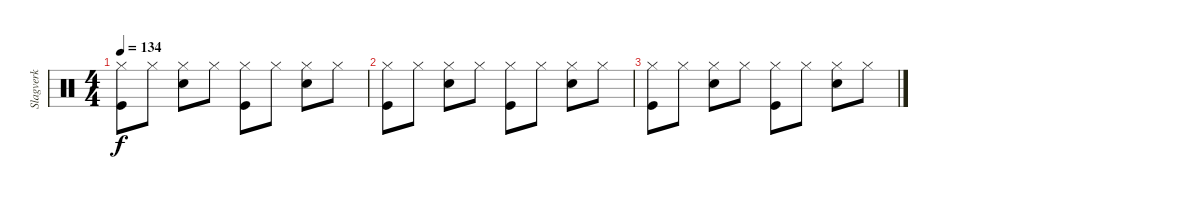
\track ("Slagverk" "Slagverk") {instrument percussion}
\staff
\articulation defaults
\ts (4 4)
\tempo 134
\clef neutral
\ks c
("Hi-Hat (closed)" "Kick (hit)").8{dy f} "Hi-Hat (closed)".8 ("Hi-Hat (closed)" "Electric Snare (hit)").8 "Hi-Hat (closed)".8 ("Hi-Hat (closed)" "Kick (hit)").8 "Hi-Hat (closed)".8 ("Hi-Hat (closed)" "Electric Snare (hit)").8 "Hi-Hat (closed)".8 |
("Hi-Hat (closed)" "Kick (hit)").8 "Hi-Hat (closed)".8 ("Hi-Hat (closed)" "Electric Snare (hit)").8 "Hi-Hat (closed)".8 ("Hi-Hat (closed)" "Kick (hit)").8 "Hi-Hat (closed)".8 ("Hi-Hat (closed)" "Electric Snare (hit)").8 "Hi-Hat (closed)".8 |
("Hi-Hat (closed)" "Kick (hit)").8 "Hi-Hat (closed)".8 ("Hi-Hat (closed)" "Electric Snare (hit)").8 "Hi-Hat (closed)".8 ("Hi-Hat (closed)" "Kick (hit)").8 "Hi-Hat (closed)".8 ("Hi-Hat (closed)" "Electric Snare (hit)").8 "Hi-Hat (closed)".8
